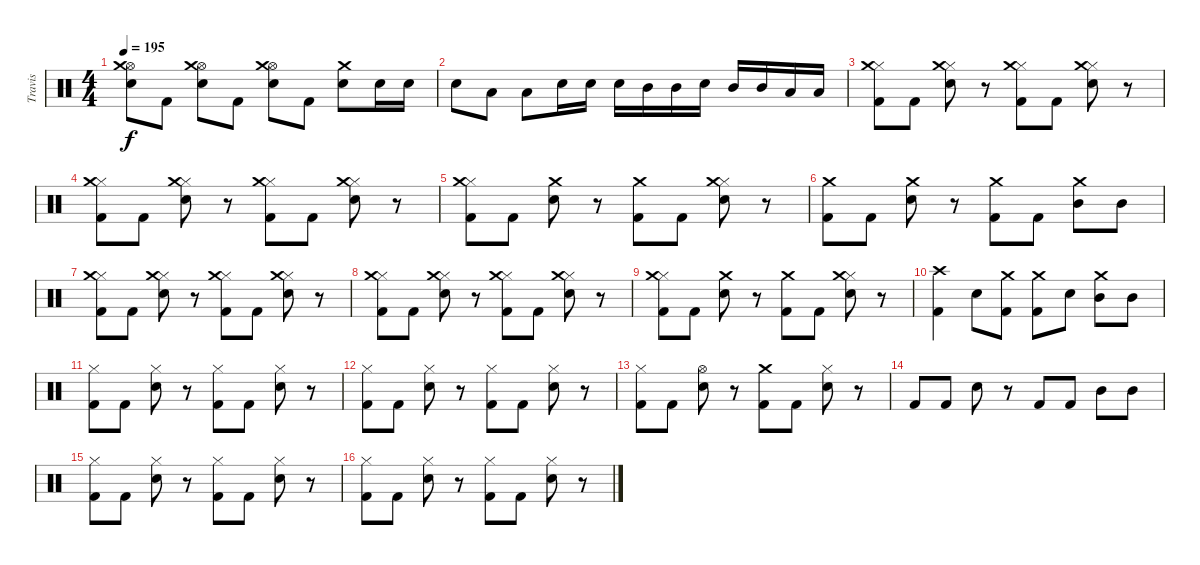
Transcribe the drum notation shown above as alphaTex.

\track ("Travis" "Travis") {instrument percussion}
\staff {score}
\articulation defaults
\ts (4 4)
\tempo 195
\clef neutral
\ks c
("Hi-Hat (open)" "Electric Snare (hit)" "Crash medium (hit)").8{dy f} "Kick (hit) 2".8 ("Hi-Hat (open)" "Electric Snare (hit)" "Crash medium (hit)").8 "Kick (hit) 2".8 ("Hi-Hat (open)" "Electric Snare (hit)" "Crash medium (hit)").8 "Kick (hit) 2".8 ("Electric Snare (hit)" "Crash medium (hit)").8 "Electric Snare (hit)".16 "Electric Snare (hit)".16 |
"Electric Snare (hit)".8 "Low Floor Tom (hit)".8 "Low Floor Tom (hit)".8 "Electric Snare (hit)".16 "Electric Snare (hit)".16 "Electric Snare (hit)".16 "Mid Tom (hit)".16 "Mid Tom (hit)".16 "Electric Snare (hit)".16 "Mid Tom (hit)".16 "Mid Tom (hit)".16 "Low Floor Tom (hit)".16 "Low Floor Tom (hit)".16 |
("Kick (hit) 2" "Hi-Hat (closed)" "Crash medium (hit)").8 "Kick (hit) 2".8 ("Electric Snare (hit)" "Hi-Hat (closed)" "Crash medium (hit)").8 r.8 ("Kick (hit) 2" "Hi-Hat (closed)" "Crash medium (hit)").8 "Kick (hit) 2".8 ("Electric Snare (hit)" "Hi-Hat (closed)" "Crash medium (hit)").8 r.8 |
("Kick (hit) 2" "Hi-Hat (closed)" "Crash medium (hit)").8 "Kick (hit) 2".8 ("Electric Snare (hit)" "Hi-Hat (closed)" "Crash medium (hit)").8 r.8 ("Kick (hit) 2" "Hi-Hat (closed)" "Crash medium (hit)").8 "Kick (hit) 2".8 ("Electric Snare (hit)" "Hi-Hat (closed)" "Crash medium (hit)").8 r.8 |
("Kick (hit) 2" "Hi-Hat (closed)" "Crash medium (hit)").8 "Kick (hit) 2".8 ("Electric Snare (hit)" "Crash medium (hit)").8 r.8 ("Kick (hit) 2" "Crash medium (hit)").8 "Kick (hit) 2".8 ("Electric Snare (hit)" "Hi-Hat (closed)" "Crash medium (hit)").8 r.8 |
("Kick (hit) 2" "Crash medium (hit)").8 "Kick (hit) 2".8 ("Electric Snare (hit)" "Crash medium (hit)").8 r.8 ("Kick (hit) 2" "Crash medium (hit)").8 "Kick (hit) 2".8 ("Mid Tom (hit)" "Crash medium (hit)").8 "Mid Tom (hit)".8 |
("Kick (hit) 2" "Hi-Hat (closed)" "Crash medium (hit)").8 "Kick (hit) 2".8 ("Electric Snare (hit)" "Hi-Hat (closed)" "Crash medium (hit)").8 r.8 ("Kick (hit) 2" "Hi-Hat (closed)" "Crash medium (hit)").8 "Kick (hit) 2".8 ("Electric Snare (hit)" "Hi-Hat (closed)" "Crash medium (hit)").8 r.8 |
("Kick (hit) 2" "Hi-Hat (closed)" "Crash medium (hit)").8 "Kick (hit) 2".8 ("Electric Snare (hit)" "Hi-Hat (closed)" "Crash medium (hit)").8 r.8 ("Kick (hit) 2" "Hi-Hat (closed)" "Crash medium (hit)").8 "Kick (hit) 2".8 ("Electric Snare (hit)" "Hi-Hat (closed)" "Crash medium (hit)").8 r.8 |
("Kick (hit) 2" "Hi-Hat (closed)" "Crash medium (hit)").8 "Kick (hit) 2".8 ("Electric Snare (hit)" "Crash medium (hit)").8 r.8 ("Kick (hit) 2" "Crash medium (hit)").8 "Kick (hit) 2".8 ("Electric Snare (hit)" "Hi-Hat (closed)" "Crash medium (hit)").8 r.8 |
("Kick (hit) 2" "Crash high (hit)").4 "Electric Snare (hit)".8 ("Kick (hit) 2" "Crash medium (hit)").8 ("Kick (hit) 2" "Crash medium (hit)").8 "Electric Snare (hit)".8 ("Mid Tom (hit)" "Crash medium (hit)").8 "Mid Tom (hit)".8 |
("Kick (hit) 2" "Hi-Hat (closed)").8 "Kick (hit) 2".8 ("Electric Snare (hit)" "Hi-Hat (closed)").8 r.8 ("Kick (hit) 2" "Hi-Hat (closed)").8 "Kick (hit) 2".8 ("Electric Snare (hit)" "Hi-Hat (closed)").8 r.8 |
("Kick (hit) 2" "Hi-Hat (closed)").8 "Kick (hit) 2".8 ("Electric Snare (hit)" "Hi-Hat (closed)").8 r.8 ("Kick (hit) 2" "Hi-Hat (closed)").8 "Kick (hit) 2".8 ("Electric Snare (hit)" "Hi-Hat (closed)").8 r.8 |
("Kick (hit) 2" "Hi-Hat (closed)").8 "Kick (hit) 2".8 ("Electric Snare (hit)" "Hi-Hat (open)").8 r.8 ("Kick (hit) 2" "Crash medium (hit)").8 "Kick (hit) 2".8 ("Electric Snare (hit)" "Hi-Hat (closed)").8 r.8 |
"Kick (hit) 2".8 "Kick (hit) 2".8 "Electric Snare (hit)".8 r.8 "Kick (hit) 2".8 "Kick (hit) 2".8 "Mid Tom (hit)".8 "Mid Tom (hit)".8 |
("Kick (hit) 2" "Hi-Hat (closed)").8 "Kick (hit) 2".8 ("Electric Snare (hit)" "Hi-Hat (closed)").8 r.8 ("Kick (hit) 2" "Hi-Hat (closed)").8 "Kick (hit) 2".8 ("Electric Snare (hit)" "Hi-Hat (closed)").8 r.8 |
("Kick (hit) 2" "Hi-Hat (closed)").8 "Kick (hit) 2".8 ("Electric Snare (hit)" "Hi-Hat (closed)").8 r.8 ("Kick (hit) 2" "Hi-Hat (closed)").8 "Kick (hit) 2".8 ("Electric Snare (hit)" "Hi-Hat (closed)").8 r.8
